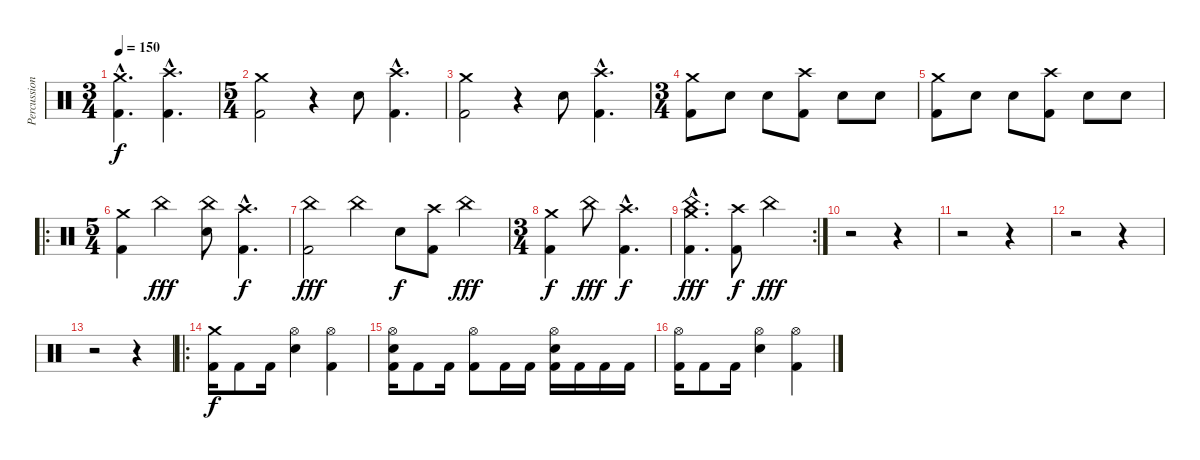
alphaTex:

\track ("Percussion" "Percussion") {instrument percussion}
\staff {score}
\articulation defaults
\ts (3 4)
\tempo 150
\clef neutral
\ks aminor
("Crash medium (hit)"{hac} "Kick (hit) 2"{hac}).4{d dy f} ("Crash high (hit)"{hac} "Kick (hit) 2"{hac}).4{d} |
\ts (5 4)
("Crash medium (hit)" "Kick (hit) 2").2 r.4 "Electric Snare (hit)".8 ("Crash high (hit)"{hac} "Kick (hit) 2"{hac}).4{d} |
("Crash medium (hit)" "Kick (hit) 2").2 r.4 "Electric Snare (hit)".8 ("Crash high (hit)"{hac} "Kick (hit) 2"{hac}).4{d} |
\ts (3 4)
("Crash medium (hit)" "Kick (hit) 2").8 "Electric Snare (hit)".8 "Electric Snare (hit)".8 ("Crash high (hit)" "Kick (hit) 2").8 "Electric Snare (hit)".8 "Electric Snare (hit)".8 |
("Crash medium (hit)" "Kick (hit) 2").8 "Electric Snare (hit)".8 "Electric Snare (hit)".8 ("Crash high (hit)" "Kick (hit) 2").8 "Electric Snare (hit)".8 "Electric Snare (hit)".8 |
\ro
\ts (5 4)
("Crash medium (hit)" "Kick (hit) 2").4 "China (hit)".2{dy fff} ("China (hit)" "Electric Snare (hit)").8 ("Crash high (hit)"{hac} "Kick (hit) 2"{hac}).4{d dy f} |
("China (hit)" "Kick (hit) 2").2{dy fff} "China (hit)".4 "Electric Snare (hit)".8{dy f} ("Crash high (hit)" "Kick (hit) 2").8 "China (hit)".4{dy fff} |
\ts (3 4)
("Crash medium (hit)" "Kick (hit) 2").4{dy f} "China (hit)".8{dy fff} ("Crash high (hit)"{hac} "Kick (hit) 2"{hac}).4{d dy f} |
\rc 2
("Crash medium (hit)"{hac} "China (hit)"{hac} "Kick (hit) 2"{hac}).4{d dy fff} ("Crash high (hit)" "Kick (hit) 2").8{dy f} "China (hit)".4{dy fff} |
r.2 r.4 |
r.2 r.4 |
r.2 r.4 |
r.2 r.4 |
\ro
("Crash medium (hit)" "Kick (hit) 2").16{dy f} "Kick (hit) 2".8 "Kick (hit) 2".16 ("Hi-Hat (open)" "Electric Snare (hit)").4 ("Hi-Hat (open)" "Kick (hit) 2").4 |
("Hi-Hat (open)" "Electric Snare (hit)" "Kick (hit) 2").16 "Kick (hit) 2".8 "Kick (hit) 2".16 ("Hi-Hat (open)" "Kick (hit) 2").8 "Kick (hit) 2".16 "Kick (hit) 2".16 ("Hi-Hat (open)" "Electric Snare (hit)" "Kick (hit) 2").16 "Kick (hit) 2".16 "Kick (hit) 2".16 "Kick (hit) 2".16 |
("Hi-Hat (open)" "Kick (hit) 2").16 "Kick (hit) 2".8 "Kick (hit) 2".16 ("Hi-Hat (open)" "Electric Snare (hit)").4 ("Hi-Hat (open)" "Kick (hit) 2").4
